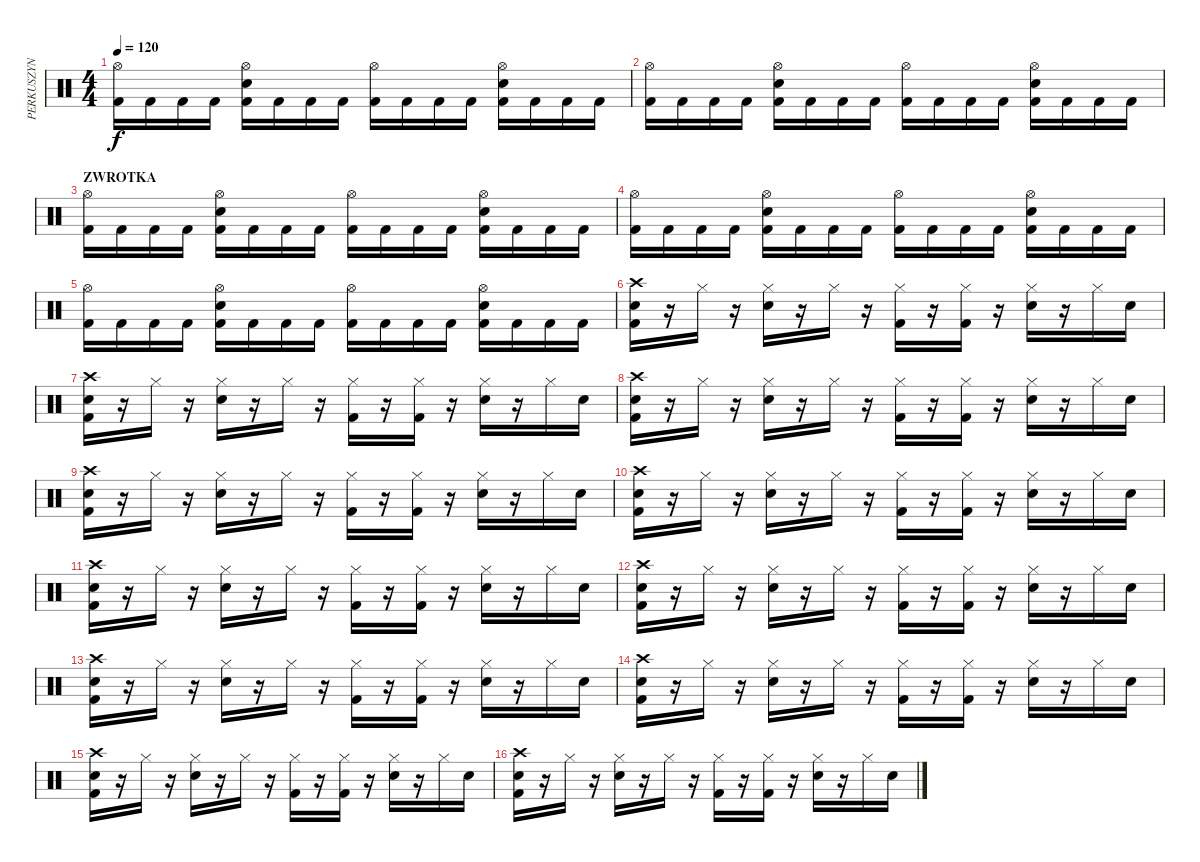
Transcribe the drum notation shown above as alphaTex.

\track ("PERKUSZYN" "PERKUSZYN") {instrument percussion}
\staff {score}
\articulation defaults
\ts (4 4)
\tempo 120
\clef neutral
\ks c
("Hi-Hat (open)" "Kick (hit) 2").16{dy f} "Kick (hit) 2".16 "Kick (hit) 2".16 "Kick (hit) 2".16 ("Hi-Hat (open)" "Electric Snare (hit)" "Kick (hit) 2").16 "Kick (hit) 2".16 "Kick (hit) 2".16 "Kick (hit) 2".16 ("Hi-Hat (open)" "Kick (hit) 2").16 "Kick (hit) 2".16 "Kick (hit) 2".16 "Kick (hit) 2".16 ("Hi-Hat (open)" "Electric Snare (hit)" "Kick (hit) 2").16 "Kick (hit) 2".16 "Kick (hit) 2".16 "Kick (hit) 2".16 |
("Hi-Hat (open)" "Kick (hit) 2").16 "Kick (hit) 2".16 "Kick (hit) 2".16 "Kick (hit) 2".16 ("Hi-Hat (open)" "Electric Snare (hit)" "Kick (hit) 2").16 "Kick (hit) 2".16 "Kick (hit) 2".16 "Kick (hit) 2".16 ("Hi-Hat (open)" "Kick (hit) 2").16 "Kick (hit) 2".16 "Kick (hit) 2".16 "Kick (hit) 2".16 ("Hi-Hat (open)" "Electric Snare (hit)" "Kick (hit) 2").16 "Kick (hit) 2".16 "Kick (hit) 2".16 "Kick (hit) 2".16 |
\section ("" "ZWROTKA")
("Hi-Hat (open)" "Kick (hit) 2").16 "Kick (hit) 2".16 "Kick (hit) 2".16 "Kick (hit) 2".16 ("Hi-Hat (open)" "Electric Snare (hit)" "Kick (hit) 2").16 "Kick (hit) 2".16 "Kick (hit) 2".16 "Kick (hit) 2".16 ("Hi-Hat (open)" "Kick (hit) 2").16 "Kick (hit) 2".16 "Kick (hit) 2".16 "Kick (hit) 2".16 ("Hi-Hat (open)" "Electric Snare (hit)" "Kick (hit) 2").16 "Kick (hit) 2".16 "Kick (hit) 2".16 "Kick (hit) 2".16 |
("Hi-Hat (open)" "Kick (hit) 2").16 "Kick (hit) 2".16 "Kick (hit) 2".16 "Kick (hit) 2".16 ("Hi-Hat (open)" "Electric Snare (hit)" "Kick (hit) 2").16 "Kick (hit) 2".16 "Kick (hit) 2".16 "Kick (hit) 2".16 ("Hi-Hat (open)" "Kick (hit) 2").16 "Kick (hit) 2".16 "Kick (hit) 2".16 "Kick (hit) 2".16 ("Hi-Hat (open)" "Electric Snare (hit)" "Kick (hit) 2").16 "Kick (hit) 2".16 "Kick (hit) 2".16 "Kick (hit) 2".16 |
("Hi-Hat (open)" "Kick (hit) 2").16 "Kick (hit) 2".16 "Kick (hit) 2".16 "Kick (hit) 2".16 ("Hi-Hat (open)" "Electric Snare (hit)" "Kick (hit) 2").16 "Kick (hit) 2".16 "Kick (hit) 2".16 "Kick (hit) 2".16 ("Hi-Hat (open)" "Kick (hit) 2").16 "Kick (hit) 2".16 "Kick (hit) 2".16 "Kick (hit) 2".16 ("Hi-Hat (open)" "Electric Snare (hit)" "Kick (hit) 2").16 "Kick (hit) 2".16 "Kick (hit) 2".16 "Kick (hit) 2".16 |
("Crash high (hit)" "Snare (hit) 2" "Kick (hit) 2").16 r.16 "Hi-Hat (closed)".16 r.16 ("Hi-Hat (closed)" "Snare (hit) 2").16 r.16 "Hi-Hat (closed)".16 r.16 ("Hi-Hat (closed)" "Kick (hit) 2").16 r.16 ("Hi-Hat (closed)" "Kick (hit) 2").16 r.16 ("Hi-Hat (closed)" "Snare (hit) 2").16 r.16 "Hi-Hat (closed)".16 "Snare (hit) 2".16 |
("Crash high (hit)" "Snare (hit) 2" "Kick (hit) 2").16 r.16 "Hi-Hat (closed)".16 r.16 ("Hi-Hat (closed)" "Snare (hit) 2").16 r.16 "Hi-Hat (closed)".16 r.16 ("Hi-Hat (closed)" "Kick (hit) 2").16 r.16 ("Hi-Hat (closed)" "Kick (hit) 2").16 r.16 ("Hi-Hat (closed)" "Snare (hit) 2").16 r.16 "Hi-Hat (closed)".16 "Snare (hit) 2".16 |
("Crash high (hit)" "Snare (hit) 2" "Kick (hit) 2").16 r.16 "Hi-Hat (closed)".16 r.16 ("Hi-Hat (closed)" "Snare (hit) 2").16 r.16 "Hi-Hat (closed)".16 r.16 ("Hi-Hat (closed)" "Kick (hit) 2").16 r.16 ("Hi-Hat (closed)" "Kick (hit) 2").16 r.16 ("Hi-Hat (closed)" "Snare (hit) 2").16 r.16 "Hi-Hat (closed)".16 "Snare (hit) 2".16 |
("Crash high (hit)" "Snare (hit) 2" "Kick (hit) 2").16 r.16 "Hi-Hat (closed)".16 r.16 ("Hi-Hat (closed)" "Snare (hit) 2").16 r.16 "Hi-Hat (closed)".16 r.16 ("Hi-Hat (closed)" "Kick (hit) 2").16 r.16 ("Hi-Hat (closed)" "Kick (hit) 2").16 r.16 ("Hi-Hat (closed)" "Snare (hit) 2").16 r.16 "Hi-Hat (closed)".16 "Snare (hit) 2".16 |
("Crash high (hit)" "Snare (hit) 2" "Kick (hit) 2").16 r.16 "Hi-Hat (closed)".16 r.16 ("Hi-Hat (closed)" "Snare (hit) 2").16 r.16 "Hi-Hat (closed)".16 r.16 ("Hi-Hat (closed)" "Kick (hit) 2").16 r.16 ("Hi-Hat (closed)" "Kick (hit) 2").16 r.16 ("Hi-Hat (closed)" "Snare (hit) 2").16 r.16 "Hi-Hat (closed)".16 "Snare (hit) 2".16 |
("Crash high (hit)" "Snare (hit) 2" "Kick (hit) 2").16 r.16 "Hi-Hat (closed)".16 r.16 ("Hi-Hat (closed)" "Snare (hit) 2").16 r.16 "Hi-Hat (closed)".16 r.16 ("Hi-Hat (closed)" "Kick (hit) 2").16 r.16 ("Hi-Hat (closed)" "Kick (hit) 2").16 r.16 ("Hi-Hat (closed)" "Snare (hit) 2").16 r.16 "Hi-Hat (closed)".16 "Snare (hit) 2".16 |
("Crash high (hit)" "Snare (hit) 2" "Kick (hit) 2").16 r.16 "Hi-Hat (closed)".16 r.16 ("Hi-Hat (closed)" "Snare (hit) 2").16 r.16 "Hi-Hat (closed)".16 r.16 ("Hi-Hat (closed)" "Kick (hit) 2").16 r.16 ("Hi-Hat (closed)" "Kick (hit) 2").16 r.16 ("Hi-Hat (closed)" "Snare (hit) 2").16 r.16 "Hi-Hat (closed)".16 "Snare (hit) 2".16 |
("Crash high (hit)" "Snare (hit) 2" "Kick (hit) 2").16 r.16 "Hi-Hat (closed)".16 r.16 ("Hi-Hat (closed)" "Snare (hit) 2").16 r.16 "Hi-Hat (closed)".16 r.16 ("Hi-Hat (closed)" "Kick (hit) 2").16 r.16 ("Hi-Hat (closed)" "Kick (hit) 2").16 r.16 ("Hi-Hat (closed)" "Snare (hit) 2").16 r.16 "Hi-Hat (closed)".16 "Snare (hit) 2".16 |
("Crash high (hit)" "Snare (hit) 2" "Kick (hit) 2").16 r.16 "Hi-Hat (closed)".16 r.16 ("Hi-Hat (closed)" "Snare (hit) 2").16 r.16 "Hi-Hat (closed)".16 r.16 ("Hi-Hat (closed)" "Kick (hit) 2").16 r.16 ("Hi-Hat (closed)" "Kick (hit) 2").16 r.16 ("Hi-Hat (closed)" "Snare (hit) 2").16 r.16 "Hi-Hat (closed)".16 "Snare (hit) 2".16 |
("Crash high (hit)" "Snare (hit) 2" "Kick (hit) 2").16 r.16 "Hi-Hat (closed)".16 r.16 ("Hi-Hat (closed)" "Snare (hit) 2").16 r.16 "Hi-Hat (closed)".16 r.16 ("Hi-Hat (closed)" "Kick (hit) 2").16 r.16 ("Hi-Hat (closed)" "Kick (hit) 2").16 r.16 ("Hi-Hat (closed)" "Snare (hit) 2").16 r.16 "Hi-Hat (closed)".16 "Snare (hit) 2".16 |
("Crash high (hit)" "Snare (hit) 2" "Kick (hit) 2").16 r.16 "Hi-Hat (closed)".16 r.16 ("Hi-Hat (closed)" "Snare (hit) 2").16 r.16 "Hi-Hat (closed)".16 r.16 ("Hi-Hat (closed)" "Kick (hit) 2").16 r.16 ("Hi-Hat (closed)" "Kick (hit) 2").16 r.16 ("Hi-Hat (closed)" "Snare (hit) 2").16 r.16 "Hi-Hat (closed)".16 "Snare (hit) 2".16
